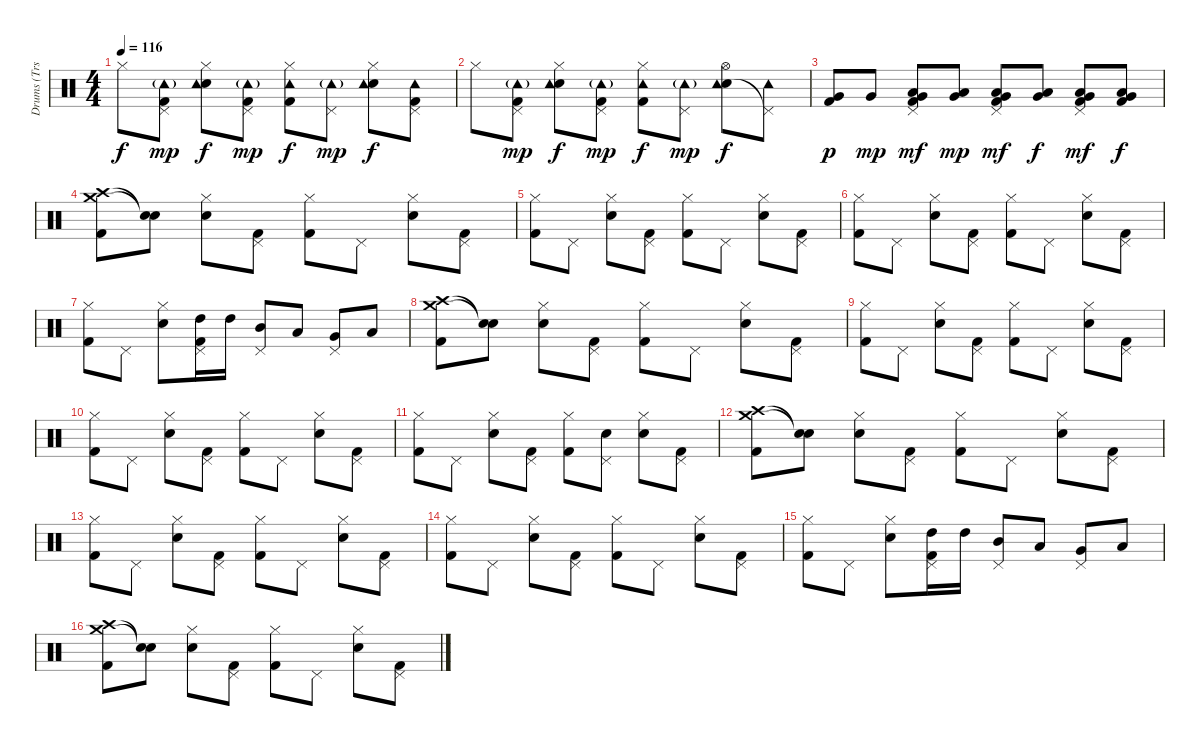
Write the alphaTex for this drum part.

\track ("Drums (Trs. 7-8A, 10A/7-8B, 10B, 12-13B)" "Drums (Trs") {mute instrument percussion}
\staff {score}
\articulation defaults
\ts (4 4)
\tempo 116
\clef neutral
\ks c "Hi-Hat (closed)".8{dy f}
("Pedal Hi-Hat (hit)" "Tambourine (hit)"{g} "Kick (hit) 2").8{dy mp} ("Electric Snare (hit)" "Hi-Hat (closed)" "Tambourine (hit)").8{dy f} ("Pedal Hi-Hat (hit)" "Tambourine (hit)"{g} "Kick (hit) 2").8{dy mp} ("Hi-Hat (closed)" "Tambourine (hit)" "Kick (hit) 2").8{dy f} ("Pedal Hi-Hat (hit)" "Tambourine (hit)"{g}).8{dy mp} ("Electric Snare (hit)" "Hi-Hat (closed)" "Tambourine (hit)").8{dy f} ("Pedal Hi-Hat (hit)" "Tambourine (hit)" "Kick (hit) 2").8 |
"Hi-Hat (closed)".8 ("Pedal Hi-Hat (hit)" "Tambourine (hit)"{g} "Kick (hit) 2").8{dy mp} ("Electric Snare (hit)" "Hi-Hat (closed)" "Tambourine (hit)").8{dy f} ("Pedal Hi-Hat (hit)" "Tambourine (hit)"{g} "Kick (hit) 2").8{dy mp} ("Hi-Hat (closed)" "Tambourine (hit)" "Kick (hit) 2").8{dy f} ("Pedal Hi-Hat (hit)" "Tambourine (hit)"{g}).8{dy mp} ("Electric Snare (hit)" "Hi-Hat (open)" "Tambourine (hit)").8{dy f} ("Pedal Hi-Hat (hit)"{t} "Tambourine (hit)").8 |
("Very Low Tom (hit)" "Kick (hit) 2").8{dy p} "Very Low Tom (hit)".8{dy mp} ("Pedal Hi-Hat (hit)" "Low Tom (hit)" "Very Low Tom (hit)" "Kick (hit) 2").8{dy mf} ("Low Tom (hit)" "Very Low Tom (hit)").8{dy mp} ("Pedal Hi-Hat (hit)" "Low Tom (hit)" "Very Low Tom (hit)" "Kick (hit) 2").8{dy mf} ("Low Tom (hit)" "Very Low Tom (hit)").8{dy f} ("Pedal Hi-Hat (hit)" "Low Tom (hit)" "Very Low Tom (hit)" "Kick (hit) 2").8{dy mf} ("Low Tom (hit)" "Very Low Tom (hit)" "Kick (hit) 2").8{dy f} |
("Crash medium (hit)" "Crash high (hit)" "Kick (hit) 2").8 ("Snare (hit)"{t} "Snare (hit)"{t}).8 ("Electric Snare (hit)" "Hi-Hat (closed)").8 ("Pedal Hi-Hat (hit)" "Kick (hit) 2").8 ("Hi-Hat (closed)" "Kick (hit) 2").8 "Pedal Hi-Hat (hit)".8 ("Electric Snare (hit)" "Hi-Hat (closed)").8 ("Pedal Hi-Hat (hit)" "Kick (hit) 2").8 |
("Hi-Hat (closed)" "Kick (hit) 2").8 "Pedal Hi-Hat (hit)".8 ("Electric Snare (hit)" "Hi-Hat (closed)").8 ("Pedal Hi-Hat (hit)" "Kick (hit) 2").8 ("Hi-Hat (closed)" "Kick (hit) 2").8 "Pedal Hi-Hat (hit)".8 ("Electric Snare (hit)" "Hi-Hat (closed)").8 ("Pedal Hi-Hat (hit)" "Kick (hit) 2").8 |
("Hi-Hat (closed)" "Kick (hit) 2").8 "Pedal Hi-Hat (hit)".8 ("Electric Snare (hit)" "Hi-Hat (closed)").8 ("Pedal Hi-Hat (hit)" "Kick (hit) 2").8 ("Hi-Hat (closed)" "Kick (hit) 2").8 "Pedal Hi-Hat (hit)".8 ("Electric Snare (hit)" "Hi-Hat (closed)").8 ("Pedal Hi-Hat (hit)" "Kick (hit) 2").8 |
("Hi-Hat (closed)" "Kick (hit) 2").8 "Pedal Hi-Hat (hit)".8 ("Electric Snare (hit)" "Hi-Hat (closed)").8 ("Pedal Hi-Hat (hit)" "High Tom (hit)" "Kick (hit) 2").16 "High Tom (hit)".16 ("Pedal Hi-Hat (hit)" "Mid Tom (hit)").8 "Low Tom (hit)".8 ("Pedal Hi-Hat (hit)" "Very Low Tom (hit)").8 "Low Floor Tom (hit)".8 |
("Crash medium (hit)" "Crash high (hit)" "Kick (hit) 2").8 ("Snare (hit)"{t} "Snare (hit)"{t}).8 ("Electric Snare (hit)" "Hi-Hat (closed)").8 ("Pedal Hi-Hat (hit)" "Kick (hit) 2").8 ("Hi-Hat (closed)" "Kick (hit) 2").8 "Pedal Hi-Hat (hit)".8 ("Electric Snare (hit)" "Hi-Hat (closed)").8 ("Pedal Hi-Hat (hit)" "Kick (hit) 2").8 |
("Hi-Hat (closed)" "Kick (hit) 2").8 "Pedal Hi-Hat (hit)".8 ("Electric Snare (hit)" "Hi-Hat (closed)").8 ("Pedal Hi-Hat (hit)" "Kick (hit) 2").8 ("Hi-Hat (closed)" "Kick (hit) 2").8 "Pedal Hi-Hat (hit)".8 ("Electric Snare (hit)" "Hi-Hat (closed)").8 ("Pedal Hi-Hat (hit)" "Kick (hit) 2").8 |
("Hi-Hat (closed)" "Kick (hit) 2").8 "Pedal Hi-Hat (hit)".8 ("Electric Snare (hit)" "Hi-Hat (closed)").8 ("Pedal Hi-Hat (hit)" "Kick (hit) 2").8 ("Hi-Hat (closed)" "Kick (hit) 2").8 "Pedal Hi-Hat (hit)".8 ("Electric Snare (hit)" "Hi-Hat (closed)").8 ("Pedal Hi-Hat (hit)" "Kick (hit) 2").8 |
("Hi-Hat (closed)" "Kick (hit) 2").8 "Pedal Hi-Hat (hit)".8 ("Electric Snare (hit)" "Hi-Hat (closed)").8 ("Pedal Hi-Hat (hit)" "Kick (hit) 2").8 ("Hi-Hat (closed)" "Kick (hit) 2").8 ("Electric Snare (hit)" "Pedal Hi-Hat (hit)").8 ("Electric Snare (hit)" "Hi-Hat (closed)").8 ("Pedal Hi-Hat (hit)" "Kick (hit) 2").8 |
("Crash medium (hit)" "Crash high (hit)" "Kick (hit) 2").8 ("Snare (hit)"{t} "Snare (hit)"{t}).8 ("Electric Snare (hit)" "Hi-Hat (closed)").8 ("Pedal Hi-Hat (hit)" "Kick (hit) 2").8 ("Hi-Hat (closed)" "Kick (hit) 2").8 "Pedal Hi-Hat (hit)".8 ("Electric Snare (hit)" "Hi-Hat (closed)").8 ("Pedal Hi-Hat (hit)" "Kick (hit) 2").8 |
("Hi-Hat (closed)" "Kick (hit) 2").8 "Pedal Hi-Hat (hit)".8 ("Electric Snare (hit)" "Hi-Hat (closed)").8 ("Pedal Hi-Hat (hit)" "Kick (hit) 2").8 ("Hi-Hat (closed)" "Kick (hit) 2").8 "Pedal Hi-Hat (hit)".8 ("Electric Snare (hit)" "Hi-Hat (closed)").8 ("Pedal Hi-Hat (hit)" "Kick (hit) 2").8 |
("Hi-Hat (closed)" "Kick (hit) 2").8 "Pedal Hi-Hat (hit)".8 ("Electric Snare (hit)" "Hi-Hat (closed)").8 ("Pedal Hi-Hat (hit)" "Kick (hit) 2").8 ("Hi-Hat (closed)" "Kick (hit) 2").8 "Pedal Hi-Hat (hit)".8 ("Electric Snare (hit)" "Hi-Hat (closed)").8 ("Pedal Hi-Hat (hit)" "Kick (hit) 2").8 |
("Hi-Hat (closed)" "Kick (hit) 2").8 "Pedal Hi-Hat (hit)".8 ("Electric Snare (hit)" "Hi-Hat (closed)").8 ("Pedal Hi-Hat (hit)" "High Tom (hit)" "Kick (hit) 2").16 "High Tom (hit)".16 ("Pedal Hi-Hat (hit)" "Mid Tom (hit)").8 "Low Tom (hit)".8 ("Pedal Hi-Hat (hit)" "Very Low Tom (hit)").8 "Low Floor Tom (hit)".8 |
("Crash medium (hit)" "Crash high (hit)" "Kick (hit) 2").8 ("Snare (hit)"{t} "Snare (hit)"{t}).8 ("Electric Snare (hit)" "Hi-Hat (closed)").8 ("Pedal Hi-Hat (hit)" "Kick (hit) 2").8 ("Hi-Hat (closed)" "Kick (hit) 2").8 "Pedal Hi-Hat (hit)".8 ("Electric Snare (hit)" "Hi-Hat (closed)").8 ("Pedal Hi-Hat (hit)" "Kick (hit) 2").8
